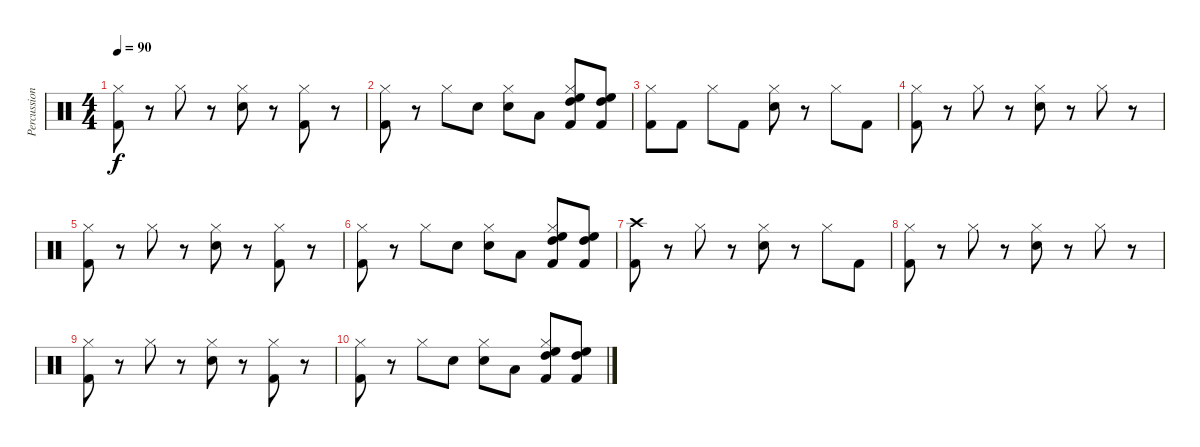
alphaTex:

\track ("Percussion" "Percussion") {instrument percussion}
\staff {score}
\articulation defaults
\ts (4 4)
\tempo 90
\clef neutral
\ks c
("Kick (hit) 2" "Hi-Hat (closed)").8{dy f} r.8 "Hi-Hat (closed)".8 r.8 ("Snare (hit) 2" "Hi-Hat (closed)").8 r.8 ("Kick (hit) 2" "Hi-Hat (closed)").8 r.8 |
("Kick (hit) 2" "Hi-Hat (closed)").8 r.8 "Hi-Hat (closed)".8 "Snare (hit) 2".8 ("Snare (hit) 2" "Hi-Hat (closed)").8 "Low Tom (hit)".8 ("Kick (hit) 2" "Hi-Hat (closed)" "High Floor Tom (hit)" "High Tom (hit)").8 ("Kick (hit) 2" "High Floor Tom (hit)" "High Tom (hit)").8 |
("Kick (hit) 2" "Hi-Hat (closed)").8 "Kick (hit) 2".8 "Hi-Hat (closed)".8 "Kick (hit) 2".8 ("Snare (hit) 2" "Hi-Hat (closed)").8 r.8 "Hi-Hat (closed)".8 "Kick (hit) 2".8 |
("Kick (hit) 2" "Hi-Hat (closed)").8 r.8 "Hi-Hat (closed)".8 r.8 ("Snare (hit) 2" "Hi-Hat (closed)").8 r.8 "Hi-Hat (closed)".8 r.8 |
("Kick (hit) 2" "Hi-Hat (closed)").8 r.8 "Hi-Hat (closed)".8 r.8 ("Snare (hit) 2" "Hi-Hat (closed)").8 r.8 ("Kick (hit) 2" "Hi-Hat (closed)").8 r.8 |
("Kick (hit) 2" "Hi-Hat (closed)").8 r.8 "Hi-Hat (closed)".8 "Snare (hit) 2".8 ("Snare (hit) 2" "Hi-Hat (closed)").8 "Low Tom (hit)".8 ("Kick (hit) 2" "Hi-Hat (closed)" "High Floor Tom (hit)" "High Tom (hit)").8 ("Kick (hit) 2" "High Floor Tom (hit)" "High Tom (hit)").8 |
("Kick (hit) 2" "Crash high (hit)").8 r.8 "Hi-Hat (closed)".8 r.8 ("Snare (hit) 2" "Hi-Hat (closed)").8 r.8 "Hi-Hat (closed)".8 "Kick (hit) 2".8 |
("Kick (hit) 2" "Hi-Hat (closed)").8 r.8 "Hi-Hat (closed)".8 r.8 ("Snare (hit) 2" "Hi-Hat (closed)").8 r.8 "Hi-Hat (closed)".8 r.8 |
("Kick (hit) 2" "Hi-Hat (closed)").8 r.8 "Hi-Hat (closed)".8 r.8 ("Snare (hit) 2" "Hi-Hat (closed)").8 r.8 ("Kick (hit) 2" "Hi-Hat (closed)").8 r.8 |
("Kick (hit) 2" "Hi-Hat (closed)").8 r.8 "Hi-Hat (closed)".8 "Snare (hit) 2".8 ("Snare (hit) 2" "Hi-Hat (closed)").8 "Low Tom (hit)".8 ("Kick (hit) 2" "Hi-Hat (closed)" "High Floor Tom (hit)" "High Tom (hit)").8 ("Kick (hit) 2" "High Floor Tom (hit)" "High Tom (hit)").8
